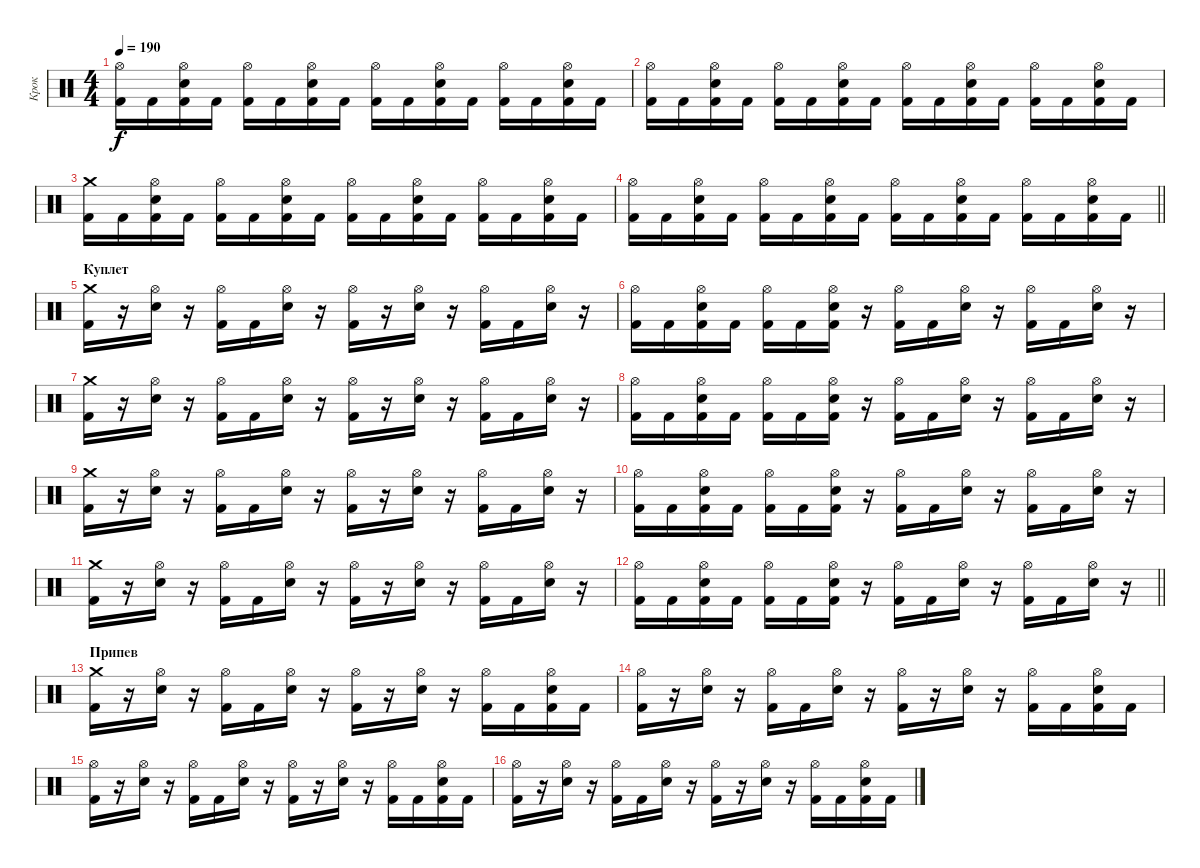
\track ("Крок" "Крок") {instrument percussion}
\staff {score}
\articulation defaults
\ts (4 4)
\tempo 190
\clef neutral
\ks c
("Hi-Hat (open)" "Kick (hit) 2").16{dy f} "Kick (hit) 2".16 ("Hi-Hat (open)" "Electric Snare (hit)" "Kick (hit) 2").16 "Kick (hit) 2".16 ("Hi-Hat (open)" "Kick (hit) 2").16 "Kick (hit) 2".16 ("Hi-Hat (open)" "Electric Snare (hit)" "Kick (hit) 2").16 "Kick (hit) 2".16 ("Hi-Hat (open)" "Kick (hit) 2").16 "Kick (hit) 2".16 ("Hi-Hat (open)" "Electric Snare (hit)" "Kick (hit) 2").16 "Kick (hit) 2".16 ("Hi-Hat (open)" "Kick (hit) 2").16 "Kick (hit) 2".16 ("Hi-Hat (open)" "Electric Snare (hit)" "Kick (hit) 2").16 "Kick (hit) 2".16 |
("Hi-Hat (open)" "Kick (hit) 2").16 "Kick (hit) 2".16 ("Hi-Hat (open)" "Electric Snare (hit)" "Kick (hit) 2").16 "Kick (hit) 2".16 ("Hi-Hat (open)" "Kick (hit) 2").16 "Kick (hit) 2".16 ("Hi-Hat (open)" "Electric Snare (hit)" "Kick (hit) 2").16 "Kick (hit) 2".16 ("Hi-Hat (open)" "Kick (hit) 2").16 "Kick (hit) 2".16 ("Hi-Hat (open)" "Electric Snare (hit)" "Kick (hit) 2").16 "Kick (hit) 2".16 ("Hi-Hat (open)" "Kick (hit) 2").16 "Kick (hit) 2".16 ("Hi-Hat (open)" "Electric Snare (hit)" "Kick (hit) 2").16 "Kick (hit) 2".16 |
("Crash medium (hit)" "Kick (hit) 2").16 "Kick (hit) 2".16 ("Hi-Hat (open)" "Electric Snare (hit)" "Kick (hit) 2").16 "Kick (hit) 2".16 ("Hi-Hat (open)" "Kick (hit) 2").16 "Kick (hit) 2".16 ("Hi-Hat (open)" "Electric Snare (hit)" "Kick (hit) 2").16 "Kick (hit) 2".16 ("Hi-Hat (open)" "Kick (hit) 2").16 "Kick (hit) 2".16 ("Hi-Hat (open)" "Electric Snare (hit)" "Kick (hit) 2").16 "Kick (hit) 2".16 ("Hi-Hat (open)" "Kick (hit) 2").16 "Kick (hit) 2".16 ("Hi-Hat (open)" "Electric Snare (hit)" "Kick (hit) 2").16 "Kick (hit) 2".16 |
\barLineRight lightlight
("Hi-Hat (open)" "Kick (hit) 2").16 "Kick (hit) 2".16 ("Hi-Hat (open)" "Electric Snare (hit)" "Kick (hit) 2").16 "Kick (hit) 2".16 ("Hi-Hat (open)" "Kick (hit) 2").16 "Kick (hit) 2".16 ("Hi-Hat (open)" "Electric Snare (hit)" "Kick (hit) 2").16 "Kick (hit) 2".16 ("Hi-Hat (open)" "Kick (hit) 2").16 "Kick (hit) 2".16 ("Hi-Hat (open)" "Electric Snare (hit)" "Kick (hit) 2").16 "Kick (hit) 2".16 ("Hi-Hat (open)" "Kick (hit) 2").16 "Kick (hit) 2".16 ("Hi-Hat (open)" "Electric Snare (hit)" "Kick (hit) 2").16 "Kick (hit) 2".16 |
\section ("" "Куплет")
("Crash medium (hit)" "Kick (hit) 2").16 r.16 ("Hi-Hat (open)" "Electric Snare (hit)").16 r.16 ("Hi-Hat (open)" "Kick (hit) 2").16 "Kick (hit) 2".16 ("Hi-Hat (open)" "Electric Snare (hit)").16 r.16 ("Hi-Hat (open)" "Kick (hit) 2").16 r.16 ("Hi-Hat (open)" "Electric Snare (hit)").16 r.16 ("Hi-Hat (open)" "Kick (hit) 2").16 "Kick (hit) 2".16 ("Hi-Hat (open)" "Electric Snare (hit)").16 r.16 |
("Hi-Hat (open)" "Kick (hit) 2").16 "Kick (hit) 2".16 ("Hi-Hat (open)" "Electric Snare (hit)" "Kick (hit) 2").16 "Kick (hit) 2".16 ("Hi-Hat (open)" "Kick (hit) 2").16 "Kick (hit) 2".16 ("Hi-Hat (open)" "Electric Snare (hit)" "Kick (hit) 2").16 r.16 ("Hi-Hat (open)" "Kick (hit) 2").16 "Kick (hit) 2".16 ("Hi-Hat (open)" "Electric Snare (hit)").16 r.16 ("Hi-Hat (open)" "Kick (hit) 2").16 "Kick (hit) 2".16 ("Hi-Hat (open)" "Electric Snare (hit)").16 r.16 |
("Crash medium (hit)" "Kick (hit) 2").16 r.16 ("Hi-Hat (open)" "Electric Snare (hit)").16 r.16 ("Hi-Hat (open)" "Kick (hit) 2").16 "Kick (hit) 2".16 ("Hi-Hat (open)" "Electric Snare (hit)").16 r.16 ("Hi-Hat (open)" "Kick (hit) 2").16 r.16 ("Hi-Hat (open)" "Electric Snare (hit)").16 r.16 ("Hi-Hat (open)" "Kick (hit) 2").16 "Kick (hit) 2".16 ("Hi-Hat (open)" "Electric Snare (hit)").16 r.16 |
("Hi-Hat (open)" "Kick (hit) 2").16 "Kick (hit) 2".16 ("Hi-Hat (open)" "Electric Snare (hit)" "Kick (hit) 2").16 "Kick (hit) 2".16 ("Hi-Hat (open)" "Kick (hit) 2").16 "Kick (hit) 2".16 ("Hi-Hat (open)" "Electric Snare (hit)" "Kick (hit) 2").16 r.16 ("Hi-Hat (open)" "Kick (hit) 2").16 "Kick (hit) 2".16 ("Hi-Hat (open)" "Electric Snare (hit)").16 r.16 ("Hi-Hat (open)" "Kick (hit) 2").16 "Kick (hit) 2".16 ("Hi-Hat (open)" "Electric Snare (hit)").16 r.16 |
("Crash medium (hit)" "Kick (hit) 2").16 r.16 ("Hi-Hat (open)" "Electric Snare (hit)").16 r.16 ("Hi-Hat (open)" "Kick (hit) 2").16 "Kick (hit) 2".16 ("Hi-Hat (open)" "Electric Snare (hit)").16 r.16 ("Hi-Hat (open)" "Kick (hit) 2").16 r.16 ("Hi-Hat (open)" "Electric Snare (hit)").16 r.16 ("Hi-Hat (open)" "Kick (hit) 2").16 "Kick (hit) 2".16 ("Hi-Hat (open)" "Electric Snare (hit)").16 r.16 |
("Hi-Hat (open)" "Kick (hit) 2").16 "Kick (hit) 2".16 ("Hi-Hat (open)" "Electric Snare (hit)" "Kick (hit) 2").16 "Kick (hit) 2".16 ("Hi-Hat (open)" "Kick (hit) 2").16 "Kick (hit) 2".16 ("Hi-Hat (open)" "Electric Snare (hit)" "Kick (hit) 2").16 r.16 ("Hi-Hat (open)" "Kick (hit) 2").16 "Kick (hit) 2".16 ("Hi-Hat (open)" "Electric Snare (hit)").16 r.16 ("Hi-Hat (open)" "Kick (hit) 2").16 "Kick (hit) 2".16 ("Hi-Hat (open)" "Electric Snare (hit)").16 r.16 |
("Crash medium (hit)" "Kick (hit) 2").16 r.16 ("Hi-Hat (open)" "Electric Snare (hit)").16 r.16 ("Hi-Hat (open)" "Kick (hit) 2").16 "Kick (hit) 2".16 ("Hi-Hat (open)" "Electric Snare (hit)").16 r.16 ("Hi-Hat (open)" "Kick (hit) 2").16 r.16 ("Hi-Hat (open)" "Electric Snare (hit)").16 r.16 ("Hi-Hat (open)" "Kick (hit) 2").16 "Kick (hit) 2".16 ("Hi-Hat (open)" "Electric Snare (hit)").16 r.16 |
\barLineRight lightlight
("Hi-Hat (open)" "Kick (hit) 2").16 "Kick (hit) 2".16 ("Hi-Hat (open)" "Electric Snare (hit)" "Kick (hit) 2").16 "Kick (hit) 2".16 ("Hi-Hat (open)" "Kick (hit) 2").16 "Kick (hit) 2".16 ("Hi-Hat (open)" "Electric Snare (hit)" "Kick (hit) 2").16 r.16 ("Hi-Hat (open)" "Kick (hit) 2").16 "Kick (hit) 2".16 ("Hi-Hat (open)" "Electric Snare (hit)").16 r.16 ("Hi-Hat (open)" "Kick (hit) 2").16 "Kick (hit) 2".16 ("Hi-Hat (open)" "Electric Snare (hit)").16 r.16 |
\section ("" "Припев")
("Crash medium (hit)" "Kick (hit) 2").16 r.16 ("Hi-Hat (open)" "Electric Snare (hit)").16 r.16 ("Hi-Hat (open)" "Kick (hit) 2").16 "Kick (hit) 2".16 ("Hi-Hat (open)" "Electric Snare (hit)").16 r.16 ("Hi-Hat (open)" "Kick (hit) 2").16 r.16 ("Hi-Hat (open)" "Electric Snare (hit)").16 r.16 ("Hi-Hat (open)" "Kick (hit) 2").16 "Kick (hit) 2".16 ("Hi-Hat (open)" "Electric Snare (hit)" "Kick (hit) 2").16 "Kick (hit) 2".16 |
("Hi-Hat (open)" "Kick (hit) 2").16 r.16 ("Hi-Hat (open)" "Electric Snare (hit)").16 r.16 ("Hi-Hat (open)" "Kick (hit) 2").16 "Kick (hit) 2".16 ("Hi-Hat (open)" "Electric Snare (hit)").16 r.16 ("Hi-Hat (open)" "Kick (hit) 2").16 r.16 ("Hi-Hat (open)" "Electric Snare (hit)").16 r.16 ("Hi-Hat (open)" "Kick (hit) 2").16 "Kick (hit) 2".16 ("Hi-Hat (open)" "Electric Snare (hit)" "Kick (hit) 2").16 "Kick (hit) 2".16 |
("Hi-Hat (open)" "Kick (hit) 2").16 r.16 ("Hi-Hat (open)" "Electric Snare (hit)").16 r.16 ("Hi-Hat (open)" "Kick (hit) 2").16 "Kick (hit) 2".16 ("Hi-Hat (open)" "Electric Snare (hit)").16 r.16 ("Hi-Hat (open)" "Kick (hit) 2").16 r.16 ("Hi-Hat (open)" "Electric Snare (hit)").16 r.16 ("Hi-Hat (open)" "Kick (hit) 2").16 "Kick (hit) 2".16 ("Hi-Hat (open)" "Electric Snare (hit)" "Kick (hit) 2").16 "Kick (hit) 2".16 |
("Hi-Hat (open)" "Kick (hit) 2").16 r.16 ("Hi-Hat (open)" "Electric Snare (hit)").16 r.16 ("Hi-Hat (open)" "Kick (hit) 2").16 "Kick (hit) 2".16 ("Hi-Hat (open)" "Electric Snare (hit)").16 r.16 ("Hi-Hat (open)" "Kick (hit) 2").16 r.16 ("Hi-Hat (open)" "Electric Snare (hit)").16 r.16 ("Hi-Hat (open)" "Kick (hit) 2").16 "Kick (hit) 2".16 ("Hi-Hat (open)" "Electric Snare (hit)" "Kick (hit) 2").16 "Kick (hit) 2".16
